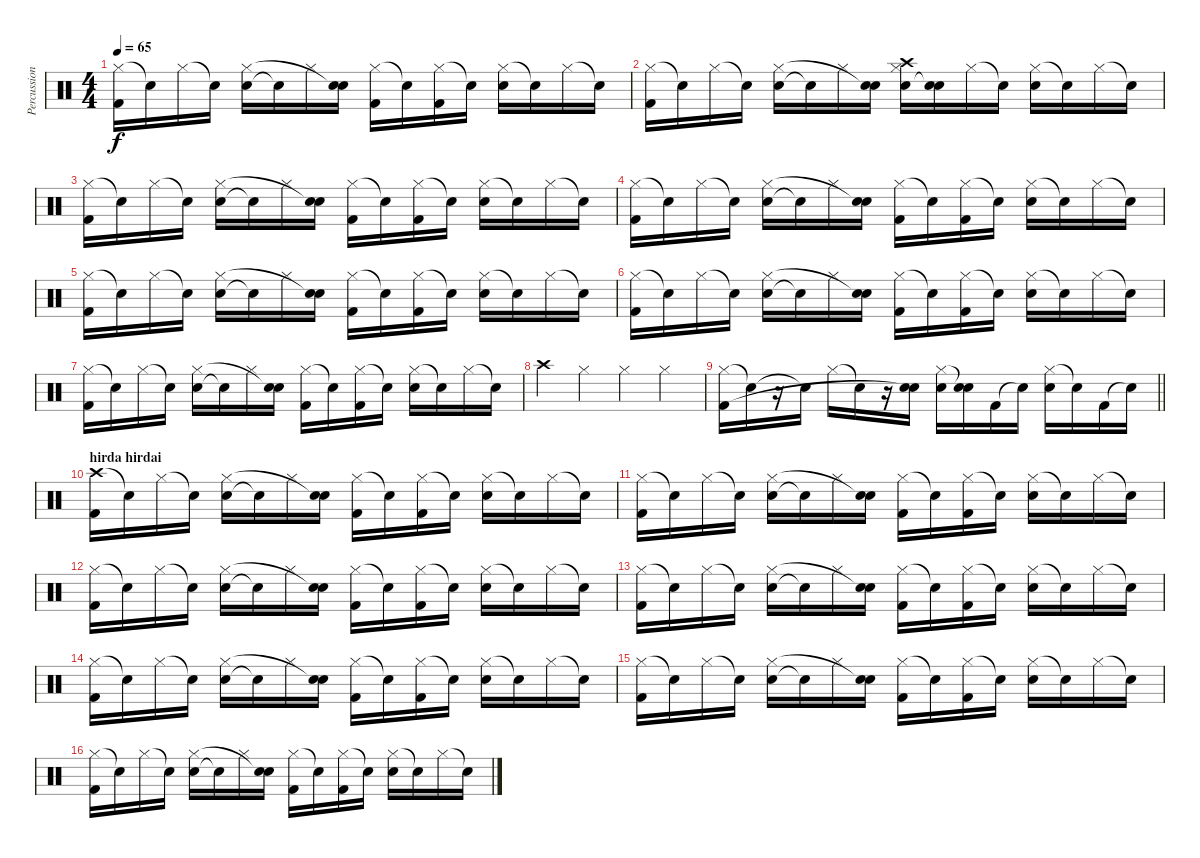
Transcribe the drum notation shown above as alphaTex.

\track ("Percussion" "Percussion") {instrument percussion}
\staff {score}
\articulation defaults
\ts (4 4)
\tempo 65
\clef neutral
\ks c
("Hi-Hat (closed)" "Kick (hit) 2").16{dy f} "Snare (hit)"{t}.16 "Hi-Hat (closed)".16 "Snare (hit)"{t}.16 ("Electric Snare (hit)" "Hi-Hat (closed)").16 "Snare (hit)"{t}.16 "Hi-Hat (closed)".16 ("Electric Snare (hit)" "Snare (hit)"{t}).16 ("Hi-Hat (closed)" "Kick (hit) 2").16 "Snare (hit)"{t}.16 ("Hi-Hat (closed)" "Kick (hit) 2").16 "Snare (hit)"{t}.16 ("Hi-Hat (closed)" "Electric Snare (hit)").16 "Snare (hit)"{t}.16 "Hi-Hat (closed)".16 "Snare (hit)"{t}.16 |
("Hi-Hat (closed)" "Kick (hit) 2").16 "Snare (hit)"{t}.16 "Hi-Hat (closed)".16 "Snare (hit)"{t}.16 ("Electric Snare (hit)" "Hi-Hat (closed)").16 "Snare (hit)"{t}.16 "Hi-Hat (closed)".16 ("Electric Snare (hit)" "Snare (hit)"{t}).16 ("Crash high (hit)" "Electric Snare (hit)" "Hi-Hat (closed)").16 ("Electric Snare (hit)" "Snare (hit)"{t}).16 "Hi-Hat (closed)".16 "Snare (hit)"{t}.16 ("Hi-Hat (closed)" "Electric Snare (hit)").16 "Snare (hit)"{t}.16 "Hi-Hat (closed)".16 "Snare (hit)"{t}.16 |
("Hi-Hat (closed)" "Kick (hit) 2").16 "Snare (hit)"{t}.16 "Hi-Hat (closed)".16 "Snare (hit)"{t}.16 ("Electric Snare (hit)" "Hi-Hat (closed)").16 "Snare (hit)"{t}.16 "Hi-Hat (closed)".16 ("Electric Snare (hit)" "Snare (hit)"{t}).16 ("Hi-Hat (closed)" "Kick (hit) 2").16 "Snare (hit)"{t}.16 ("Hi-Hat (closed)" "Kick (hit) 2").16 "Snare (hit)"{t}.16 ("Hi-Hat (closed)" "Electric Snare (hit)").16 "Snare (hit)"{t}.16 "Hi-Hat (closed)".16 "Snare (hit)"{t}.16 |
("Hi-Hat (closed)" "Kick (hit) 2").16 "Snare (hit)"{t}.16 "Hi-Hat (closed)".16 "Snare (hit)"{t}.16 ("Electric Snare (hit)" "Hi-Hat (closed)").16 "Snare (hit)"{t}.16 "Hi-Hat (closed)".16 ("Electric Snare (hit)" "Snare (hit)"{t}).16 ("Hi-Hat (closed)" "Kick (hit) 2").16 "Snare (hit)"{t}.16 ("Hi-Hat (closed)" "Kick (hit) 2").16 "Snare (hit)"{t}.16 ("Hi-Hat (closed)" "Electric Snare (hit)").16 "Snare (hit)"{t}.16 "Hi-Hat (closed)".16 "Snare (hit)"{t}.16 |
("Hi-Hat (closed)" "Kick (hit) 2").16 "Snare (hit)"{t}.16 "Hi-Hat (closed)".16 "Snare (hit)"{t}.16 ("Electric Snare (hit)" "Hi-Hat (closed)").16 "Snare (hit)"{t}.16 "Hi-Hat (closed)".16 ("Electric Snare (hit)" "Snare (hit)"{t}).16 ("Hi-Hat (closed)" "Kick (hit) 2").16 "Snare (hit)"{t}.16 ("Hi-Hat (closed)" "Kick (hit) 2").16 "Snare (hit)"{t}.16 ("Hi-Hat (closed)" "Electric Snare (hit)").16 "Snare (hit)"{t}.16 "Hi-Hat (closed)".16 "Snare (hit)"{t}.16 |
("Hi-Hat (closed)" "Kick (hit) 2").16 "Snare (hit)"{t}.16 "Hi-Hat (closed)".16 "Snare (hit)"{t}.16 ("Electric Snare (hit)" "Hi-Hat (closed)").16 "Snare (hit)"{t}.16 "Hi-Hat (closed)".16 ("Electric Snare (hit)" "Snare (hit)"{t}).16 ("Hi-Hat (closed)" "Kick (hit) 2").16 "Snare (hit)"{t}.16 ("Hi-Hat (closed)" "Kick (hit) 2").16 "Snare (hit)"{t}.16 ("Hi-Hat (closed)" "Electric Snare (hit)").16 "Snare (hit)"{t}.16 "Hi-Hat (closed)".16 "Snare (hit)"{t}.16 |
("Hi-Hat (closed)" "Kick (hit) 2").16 "Snare (hit)"{t}.16 "Hi-Hat (closed)".16 "Snare (hit)"{t}.16 ("Electric Snare (hit)" "Hi-Hat (closed)").16 "Snare (hit)"{t}.16 "Hi-Hat (closed)".16 ("Electric Snare (hit)" "Snare (hit)"{t}).16 ("Hi-Hat (closed)" "Kick (hit) 2").16 "Snare (hit)"{t}.16 ("Hi-Hat (closed)" "Kick (hit) 2").16 "Snare (hit)"{t}.16 ("Hi-Hat (closed)" "Electric Snare (hit)").16 "Snare (hit)"{t}.16 "Hi-Hat (closed)".16 "Snare (hit)"{t}.16 |
"Crash high (hit)".4 "Hi-Hat (closed)".4 "Hi-Hat (closed)".4 "Hi-Hat (closed)".4 |
\barLineRight lightlight
("Hi-Hat (closed)" "Kick (hit) 2").16 "Snare (hit)"{t}.16 r.16 "Snare (hit)"{t}.16 "Hi-Hat (closed)".16 "Snare (hit)"{t}.16 r.16 ("Electric Snare (hit)" "Snare (hit)"{t}).16 ("Electric Snare (hit)" "Hi-Hat (closed)").16 ("Electric Snare (hit)" "Snare (hit)"{t}).16 "Kick (hit) 2".16 "Snare (hit)"{t}.16 ("Hi-Hat (closed)" "Electric Snare (hit)").16 "Snare (hit)"{t}.16 "Kick (hit) 2".16 "Snare (hit)"{t}.16 |
\section ("" "hirda hirdai")
("Crash high (hit)" "Kick (hit) 2").16 "Snare (hit)"{t}.16 "Hi-Hat (closed)".16 "Snare (hit)"{t}.16 ("Electric Snare (hit)" "Hi-Hat (closed)").16 "Snare (hit)"{t}.16 "Hi-Hat (closed)".16 ("Electric Snare (hit)" "Snare (hit)"{t}).16 ("Hi-Hat (closed)" "Kick (hit) 2").16 "Snare (hit)"{t}.16 ("Hi-Hat (closed)" "Kick (hit) 2").16 "Snare (hit)"{t}.16 ("Hi-Hat (closed)" "Electric Snare (hit)").16 "Snare (hit)"{t}.16 "Hi-Hat (closed)".16 "Snare (hit)"{t}.16 |
("Hi-Hat (closed)" "Kick (hit) 2").16 "Snare (hit)"{t}.16 "Hi-Hat (closed)".16 "Snare (hit)"{t}.16 ("Electric Snare (hit)" "Hi-Hat (closed)").16 "Snare (hit)"{t}.16 "Hi-Hat (closed)".16 ("Electric Snare (hit)" "Snare (hit)"{t}).16 ("Hi-Hat (closed)" "Kick (hit) 2").16 "Snare (hit)"{t}.16 ("Hi-Hat (closed)" "Kick (hit) 2").16 "Snare (hit)"{t}.16 ("Hi-Hat (closed)" "Electric Snare (hit)").16 "Snare (hit)"{t}.16 "Hi-Hat (closed)".16 "Snare (hit)"{t}.16 |
("Hi-Hat (closed)" "Kick (hit) 2").16 "Snare (hit)"{t}.16 "Hi-Hat (closed)".16 "Snare (hit)"{t}.16 ("Electric Snare (hit)" "Hi-Hat (closed)").16 "Snare (hit)"{t}.16 "Hi-Hat (closed)".16 ("Electric Snare (hit)" "Snare (hit)"{t}).16 ("Hi-Hat (closed)" "Kick (hit) 2").16 "Snare (hit)"{t}.16 ("Hi-Hat (closed)" "Kick (hit) 2").16 "Snare (hit)"{t}.16 ("Hi-Hat (closed)" "Electric Snare (hit)").16 "Snare (hit)"{t}.16 "Hi-Hat (closed)".16 "Snare (hit)"{t}.16 |
("Hi-Hat (closed)" "Kick (hit) 2").16 "Snare (hit)"{t}.16 "Hi-Hat (closed)".16 "Snare (hit)"{t}.16 ("Electric Snare (hit)" "Hi-Hat (closed)").16 "Snare (hit)"{t}.16 "Hi-Hat (closed)".16 ("Electric Snare (hit)" "Snare (hit)"{t}).16 ("Hi-Hat (closed)" "Kick (hit) 2").16 "Snare (hit)"{t}.16 ("Hi-Hat (closed)" "Kick (hit) 2").16 "Snare (hit)"{t}.16 ("Hi-Hat (closed)" "Electric Snare (hit)").16 "Snare (hit)"{t}.16 "Hi-Hat (closed)".16 "Snare (hit)"{t}.16 |
("Hi-Hat (closed)" "Kick (hit) 2").16 "Snare (hit)"{t}.16 "Hi-Hat (closed)".16 "Snare (hit)"{t}.16 ("Electric Snare (hit)" "Hi-Hat (closed)").16 "Snare (hit)"{t}.16 "Hi-Hat (closed)".16 ("Electric Snare (hit)" "Snare (hit)"{t}).16 ("Hi-Hat (closed)" "Kick (hit) 2").16 "Snare (hit)"{t}.16 ("Hi-Hat (closed)" "Kick (hit) 2").16 "Snare (hit)"{t}.16 ("Hi-Hat (closed)" "Electric Snare (hit)").16 "Snare (hit)"{t}.16 "Hi-Hat (closed)".16 "Snare (hit)"{t}.16 |
("Hi-Hat (closed)" "Kick (hit) 2").16 "Snare (hit)"{t}.16 "Hi-Hat (closed)".16 "Snare (hit)"{t}.16 ("Electric Snare (hit)" "Hi-Hat (closed)").16 "Snare (hit)"{t}.16 "Hi-Hat (closed)".16 ("Electric Snare (hit)" "Snare (hit)"{t}).16 ("Hi-Hat (closed)" "Kick (hit) 2").16 "Snare (hit)"{t}.16 ("Hi-Hat (closed)" "Kick (hit) 2").16 "Snare (hit)"{t}.16 ("Hi-Hat (closed)" "Electric Snare (hit)").16 "Snare (hit)"{t}.16 "Hi-Hat (closed)".16 "Snare (hit)"{t}.16 |
("Hi-Hat (closed)" "Kick (hit) 2").16 "Snare (hit)"{t}.16 "Hi-Hat (closed)".16 "Snare (hit)"{t}.16 ("Electric Snare (hit)" "Hi-Hat (closed)").16 "Snare (hit)"{t}.16 "Hi-Hat (closed)".16 ("Electric Snare (hit)" "Snare (hit)"{t}).16 ("Hi-Hat (closed)" "Kick (hit) 2").16 "Snare (hit)"{t}.16 ("Hi-Hat (closed)" "Kick (hit) 2").16 "Snare (hit)"{t}.16 ("Hi-Hat (closed)" "Electric Snare (hit)").16 "Snare (hit)"{t}.16 "Hi-Hat (closed)".16 "Snare (hit)"{t}.16
